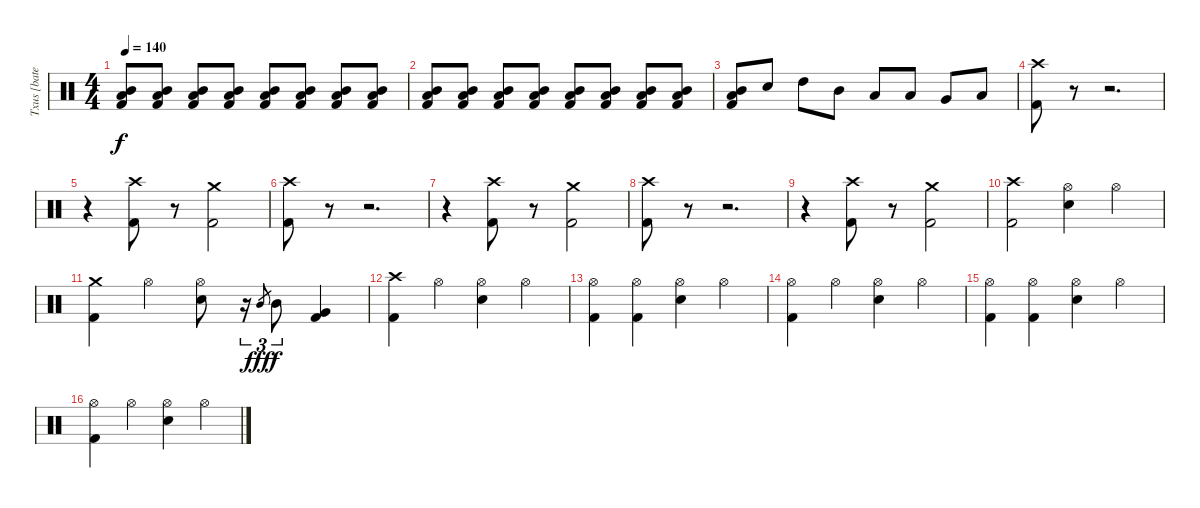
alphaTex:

\track ("Txus [bateria]" "Txus [bate") {instrument percussion}
\staff {score}
\articulation defaults
\ts (4 4)
\tempo 140
\clef neutral
\ks c
("Mid Tom (hit)" "Low Floor Tom (hit)" "Kick (hit) 2").8{dy f volume 13} ("Mid Tom (hit)" "Low Floor Tom (hit)" "Kick (hit) 2").8 ("Mid Tom (hit)" "Low Floor Tom (hit)" "Kick (hit) 2").8 ("Mid Tom (hit)" "Low Floor Tom (hit)" "Kick (hit) 2").8 ("Mid Tom (hit)" "Low Floor Tom (hit)" "Kick (hit) 2").8 ("Mid Tom (hit)" "Low Floor Tom (hit)" "Kick (hit) 2").8 ("Mid Tom (hit)" "Low Floor Tom (hit)" "Kick (hit) 2").8 ("Mid Tom (hit)" "Low Floor Tom (hit)" "Kick (hit) 2").8 |
("Mid Tom (hit)" "Low Floor Tom (hit)" "Kick (hit) 2").8 ("Mid Tom (hit)" "Low Floor Tom (hit)" "Kick (hit) 2").8 ("Mid Tom (hit)" "Low Floor Tom (hit)" "Kick (hit) 2").8 ("Mid Tom (hit)" "Low Floor Tom (hit)" "Kick (hit) 2").8 ("Mid Tom (hit)" "Low Floor Tom (hit)" "Kick (hit) 2").8 ("Mid Tom (hit)" "Low Floor Tom (hit)" "Kick (hit) 2").8 ("Mid Tom (hit)" "Low Floor Tom (hit)" "Kick (hit) 2").8 ("Mid Tom (hit)" "Low Floor Tom (hit)" "Kick (hit) 2").8 |
("Mid Tom (hit)" "Low Floor Tom (hit)" "Kick (hit) 2").8 "Snare (hit) 2".8 "High Tom (hit)".8 "Mid Tom (hit)".8 "Low Tom (hit)".8 "Low Tom (hit)".8 "Very Low Tom (hit)".8 "Low Floor Tom (hit)".8 |
("Crash high (hit)" "Kick (hit) 2").8 r.8{volume 0} r.2{d} |
r.4 ("Crash high (hit)" "Kick (hit) 2").8{volume 13} r.8{volume 0} ("Crash medium (hit)" "Kick (hit) 2").2{volume 13} |
("Crash high (hit)" "Kick (hit) 2").8 r.8{volume 0} r.2{d} |
r.4 ("Crash high (hit)" "Kick (hit) 2").8{volume 13} r.8{volume 0} ("Crash medium (hit)" "Kick (hit) 2").2{volume 13} |
("Crash high (hit)" "Kick (hit) 2").8 r.8{volume 0} r.2{d} |
r.4 ("Crash high (hit)" "Kick (hit) 2").8{volume 13} r.8{volume 0} ("Crash medium (hit)" "Kick (hit) 2").2{volume 13} |
("Crash high (hit)" "Kick (hit) 2").2 ("Hi-Hat (open)" "Snare (hit) 2").4 "Hi-Hat (open)".4 |
("Crash medium (hit)" "Kick (hit) 2").4 "Hi-Hat (open)".4 ("Hi-Hat (open)" "Snare (hit) 2").8 r.16{tu (3 2)} "Mid Tom (hit)".8{gr dy fff} "Mid Tom (hit)".8{tu (3 2) dy f} ("Very Low Tom (hit)" "Kick (hit) 2").4 |
("Crash high (hit)" "Kick (hit) 2").4 "Hi-Hat (open)".4 ("Hi-Hat (open)" "Snare (hit) 2").4 "Hi-Hat (open)".4 |
("Hi-Hat (open)" "Kick (hit) 2").4 ("Hi-Hat (open)" "Kick (hit) 2").4 ("Hi-Hat (open)" "Snare (hit) 2").4 "Hi-Hat (open)".4 |
("Hi-Hat (open)" "Kick (hit) 2").4 "Hi-Hat (open)".4 ("Hi-Hat (open)" "Snare (hit) 2").4 "Hi-Hat (open)".4 |
("Hi-Hat (open)" "Kick (hit) 2").4 ("Hi-Hat (open)" "Kick (hit) 2").4 ("Hi-Hat (open)" "Snare (hit) 2").4 "Hi-Hat (open)".4 |
("Hi-Hat (open)" "Kick (hit) 2").4 "Hi-Hat (open)".4 ("Hi-Hat (open)" "Snare (hit) 2").4 "Hi-Hat (open)".4
